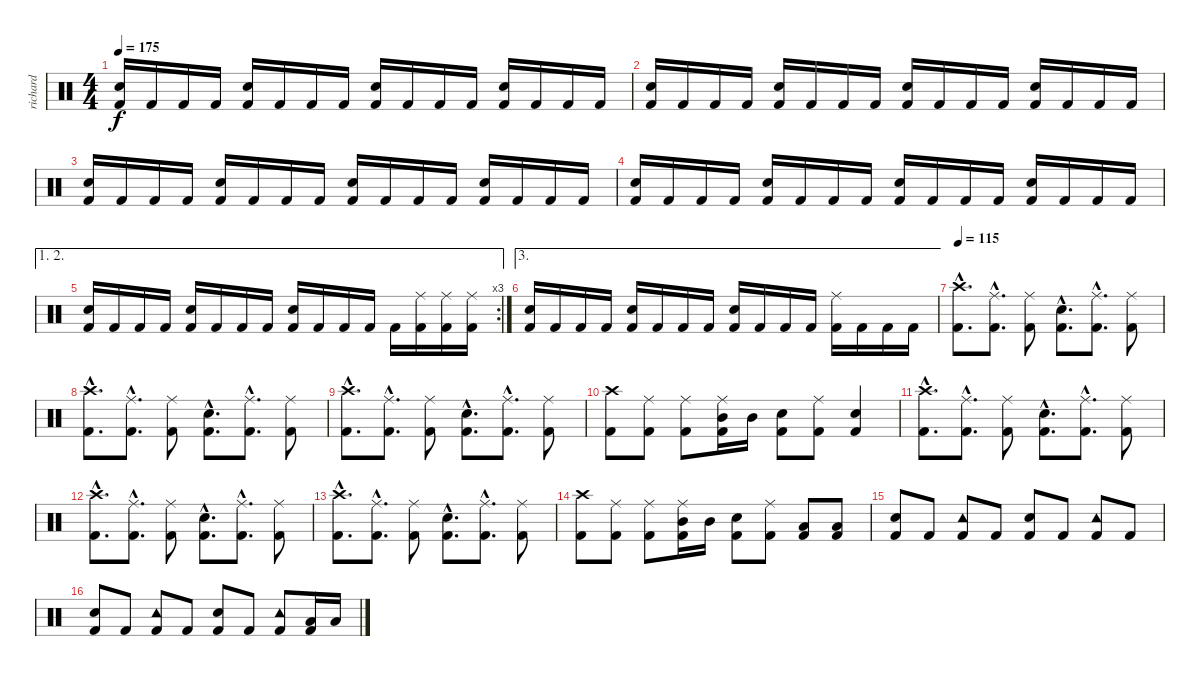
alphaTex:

\track ("richard" "richard") {instrument percussion}
\staff {score}
\articulation defaults
\ts (4 4)
\tempo 175
\clef neutral
\ks c
("Snare (hit) 2" "Kick (hit) 2").16{dy f} "Kick (hit) 2".16 "Kick (hit) 2".16 "Kick (hit) 2".16 ("Snare (hit) 2" "Kick (hit) 2").16 "Kick (hit) 2".16 "Kick (hit) 2".16 "Kick (hit) 2".16 ("Snare (hit) 2" "Kick (hit) 2").16 "Kick (hit) 2".16 "Kick (hit) 2".16 "Kick (hit) 2".16 ("Snare (hit) 2" "Kick (hit) 2").16 "Kick (hit) 2".16 "Kick (hit) 2".16 "Kick (hit) 2".16 |
("Snare (hit) 2" "Kick (hit) 2").16 "Kick (hit) 2".16 "Kick (hit) 2".16 "Kick (hit) 2".16 ("Snare (hit) 2" "Kick (hit) 2").16 "Kick (hit) 2".16 "Kick (hit) 2".16 "Kick (hit) 2".16 ("Snare (hit) 2" "Kick (hit) 2").16 "Kick (hit) 2".16 "Kick (hit) 2".16 "Kick (hit) 2".16 ("Snare (hit) 2" "Kick (hit) 2").16 "Kick (hit) 2".16 "Kick (hit) 2".16 "Kick (hit) 2".16 |
("Snare (hit) 2" "Kick (hit) 2").16 "Kick (hit) 2".16 "Kick (hit) 2".16 "Kick (hit) 2".16 ("Snare (hit) 2" "Kick (hit) 2").16 "Kick (hit) 2".16 "Kick (hit) 2".16 "Kick (hit) 2".16 ("Snare (hit) 2" "Kick (hit) 2").16 "Kick (hit) 2".16 "Kick (hit) 2".16 "Kick (hit) 2".16 ("Snare (hit) 2" "Kick (hit) 2").16 "Kick (hit) 2".16 "Kick (hit) 2".16 "Kick (hit) 2".16 |
("Snare (hit) 2" "Kick (hit) 2").16 "Kick (hit) 2".16 "Kick (hit) 2".16 "Kick (hit) 2".16 ("Snare (hit) 2" "Kick (hit) 2").16 "Kick (hit) 2".16 "Kick (hit) 2".16 "Kick (hit) 2".16 ("Snare (hit) 2" "Kick (hit) 2").16 "Kick (hit) 2".16 "Kick (hit) 2".16 "Kick (hit) 2".16 ("Snare (hit) 2" "Kick (hit) 2").16 "Kick (hit) 2".16 "Kick (hit) 2".16 "Kick (hit) 2".16 |
\ae (1 2)
\rc 3
("Snare (hit) 2" "Kick (hit) 2").16 "Kick (hit) 2".16 "Kick (hit) 2".16 "Kick (hit) 2".16 ("Snare (hit) 2" "Kick (hit) 2").16 "Kick (hit) 2".16 "Kick (hit) 2".16 "Kick (hit) 2".16 ("Snare (hit) 2" "Kick (hit) 2").16 "Kick (hit) 2".16 "Kick (hit) 2".16 "Kick (hit) 2".16 "Kick (hit) 2".16 ("Ride (middle)" "Kick (hit) 2").16 ("Ride (middle)" "Kick (hit) 2").16 ("Ride (middle)" "Kick (hit) 2").16 |
\ae 3
("Snare (hit) 2" "Kick (hit) 2").16 "Kick (hit) 2".16 "Kick (hit) 2".16 "Kick (hit) 2".16 ("Snare (hit) 2" "Kick (hit) 2").16 "Kick (hit) 2".16 "Kick (hit) 2".16 "Kick (hit) 2".16 ("Snare (hit) 2" "Kick (hit) 2").16 "Kick (hit) 2".16 "Kick (hit) 2".16 "Kick (hit) 2".16 ("Ride (middle)" "Kick (hit) 2").16 "Kick (hit) 2".16 "Kick (hit) 2".16 "Kick (hit) 2".16 |
\tempo 115
("Crash high (hit)"{hac} "Kick (hit) 2"{hac}).8{d} ("Ride (middle)"{hac} "Kick (hit) 2").8{d} ("Ride (middle)" "Kick (hit) 2").8 ("Snare (hit) 2"{hac} "Kick (hit) 2"{hac}).8{d} ("Ride (middle)"{hac} "Kick (hit) 2"{hac}).8{d} ("Ride (middle)" "Kick (hit) 2").8 |
("Crash high (hit)"{hac} "Kick (hit) 2"{hac}).8{d} ("Ride (middle)"{hac} "Kick (hit) 2").8{d} ("Ride (middle)" "Kick (hit) 2").8 ("Snare (hit) 2"{hac} "Kick (hit) 2"{hac}).8{d} ("Ride (middle)"{hac} "Kick (hit) 2"{hac}).8{d} ("Ride (middle)" "Kick (hit) 2").8 |
("Crash high (hit)"{hac} "Kick (hit) 2"{hac}).8{d} ("Ride (middle)"{hac} "Kick (hit) 2").8{d} ("Ride (middle)" "Kick (hit) 2").8 ("Snare (hit) 2"{hac} "Kick (hit) 2"{hac}).8{d} ("Ride (middle)"{hac} "Kick (hit) 2"{hac}).8{d} ("Ride (middle)" "Kick (hit) 2").8 |
("Crash high (hit)" "Kick (hit) 2").8 ("Ride (middle)" "Kick (hit) 2").8 ("Ride (middle)" "Kick (hit) 2").8 ("Ride (middle)" "Mid Tom (hit)" "Kick (hit) 2").16 "Mid Tom (hit)".16 ("Snare (hit) 2" "Kick (hit) 2").8 ("Ride (middle)" "Kick (hit) 2").8 ("Snare (hit) 2" "Kick (hit) 2").4 |
("Crash high (hit)"{hac} "Kick (hit) 2"{hac}).8{d} ("Ride (middle)"{hac} "Kick (hit) 2").8{d} ("Ride (middle)" "Kick (hit) 2").8 ("Snare (hit) 2"{hac} "Kick (hit) 2"{hac}).8{d} ("Ride (middle)"{hac} "Kick (hit) 2"{hac}).8{d} ("Ride (middle)" "Kick (hit) 2").8 |
("Crash high (hit)"{hac} "Kick (hit) 2"{hac}).8{d} ("Ride (middle)"{hac} "Kick (hit) 2").8{d} ("Ride (middle)" "Kick (hit) 2").8 ("Snare (hit) 2"{hac} "Kick (hit) 2"{hac}).8{d} ("Ride (middle)"{hac} "Kick (hit) 2"{hac}).8{d} ("Ride (middle)" "Kick (hit) 2").8 |
("Crash high (hit)"{hac} "Kick (hit) 2"{hac}).8{d} ("Ride (middle)"{hac} "Kick (hit) 2").8{d} ("Ride (middle)" "Kick (hit) 2").8 ("Snare (hit) 2"{hac} "Kick (hit) 2"{hac}).8{d} ("Ride (middle)"{hac} "Kick (hit) 2"{hac}).8{d} ("Ride (middle)" "Kick (hit) 2").8 |
("Crash high (hit)" "Kick (hit) 2").8 ("Ride (middle)" "Kick (hit) 2").8 ("Ride (middle)" "Kick (hit) 2").8 ("Ride (middle)" "Mid Tom (hit)" "Kick (hit) 2").16 "Mid Tom (hit)".16 ("Snare (hit) 2" "Kick (hit) 2").8 ("Ride (middle)" "Kick (hit) 2").8 ("Low Tom (hit)" "Kick (hit) 2").8 ("Low Tom (hit)" "Kick (hit) 2").8 |
("Snare (hit) 2" "Kick (hit) 2").8 "Kick (hit) 2".8 ("Tambourine (hit)" "Kick (hit) 2").8 "Kick (hit) 2".8 ("Snare (hit) 2" "Kick (hit) 2").8 "Kick (hit) 2".8 ("Tambourine (hit)" "Kick (hit) 2").8 "Kick (hit) 2".8 |
("Snare (hit) 2" "Kick (hit) 2").8 "Kick (hit) 2".8 ("Tambourine (hit)" "Kick (hit) 2").8 "Kick (hit) 2".8 ("Snare (hit) 2" "Kick (hit) 2").8 "Kick (hit) 2".8 ("Tambourine (hit)" "Kick (hit) 2").8 ("Low Tom (hit)" "Kick (hit) 2").16 "Low Tom (hit)".16
